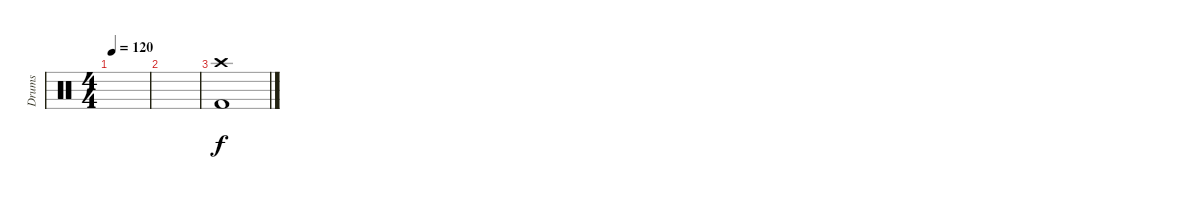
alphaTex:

\track ("Drums" "Drums") {instrument percussion}
\staff {score}
\articulation defaults
\ts (4 4)
\tempo 120
\clef neutral
\ks c
|
|
("Crash high (hit)" "Kick (hit) 2").1
